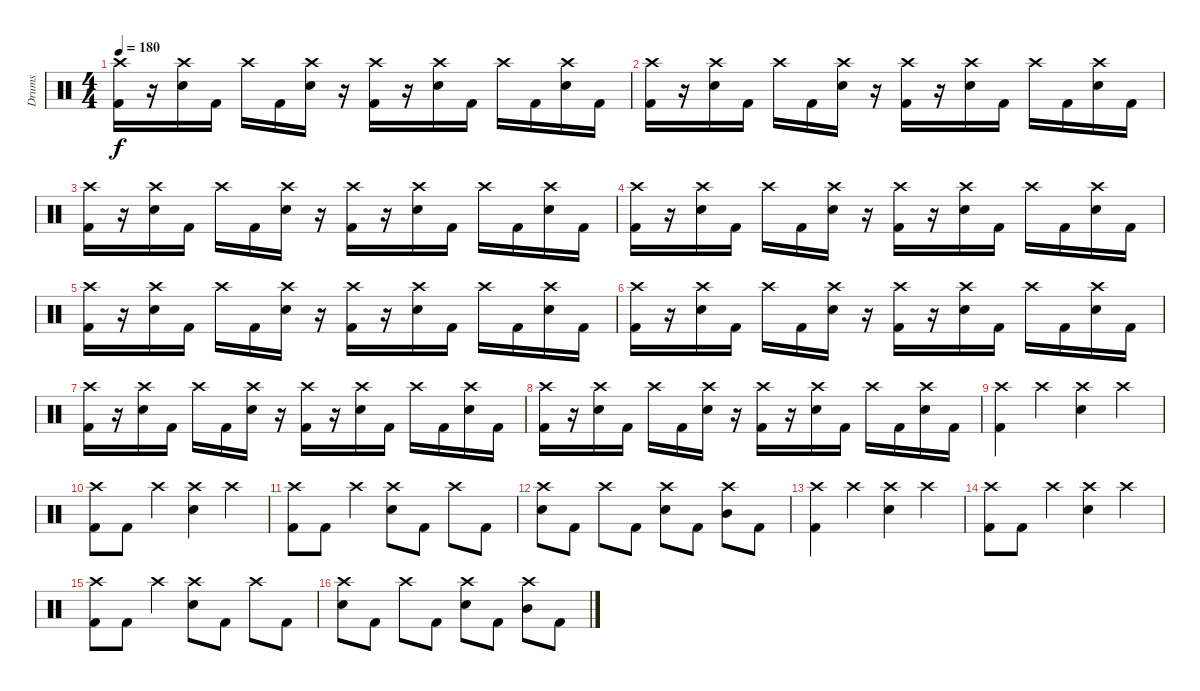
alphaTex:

\track ("Drums" "Drums") {instrument percussion}
\staff {score}
\articulation defaults
\ts (4 4)
\tempo 180
\clef neutral
\ks c
("Crash high (hit)" "Kick (hit) 2").16{dy f} r.16 ("Crash high (hit)" "Electric Snare (hit)").16 "Kick (hit) 2".16 "Crash high (hit)".16 "Kick (hit) 2".16 ("Crash high (hit)" "Electric Snare (hit)").16 r.16 ("Crash high (hit)" "Kick (hit) 2").16 r.16 ("Crash high (hit)" "Electric Snare (hit)").16 "Kick (hit) 2".16 "Crash high (hit)".16 "Kick (hit) 2".16 ("Crash high (hit)" "Electric Snare (hit)").16 "Kick (hit) 2".16 |
("Crash high (hit)" "Kick (hit) 2").16 r.16 ("Crash high (hit)" "Electric Snare (hit)").16 "Kick (hit) 2".16 "Crash high (hit)".16 "Kick (hit) 2".16 ("Crash high (hit)" "Electric Snare (hit)").16 r.16 ("Crash high (hit)" "Kick (hit) 2").16 r.16 ("Crash high (hit)" "Electric Snare (hit)").16 "Kick (hit) 2".16 "Crash high (hit)".16 "Kick (hit) 2".16 ("Crash high (hit)" "Electric Snare (hit)").16 "Kick (hit) 2".16 |
("Crash high (hit)" "Kick (hit) 2").16 r.16 ("Crash high (hit)" "Electric Snare (hit)").16 "Kick (hit) 2".16 "Crash high (hit)".16 "Kick (hit) 2".16 ("Crash high (hit)" "Electric Snare (hit)").16 r.16 ("Crash high (hit)" "Kick (hit) 2").16 r.16 ("Crash high (hit)" "Electric Snare (hit)").16 "Kick (hit) 2".16 "Crash high (hit)".16 "Kick (hit) 2".16 ("Crash high (hit)" "Electric Snare (hit)").16 "Kick (hit) 2".16 |
("Crash high (hit)" "Kick (hit) 2").16 r.16 ("Crash high (hit)" "Electric Snare (hit)").16 "Kick (hit) 2".16 "Crash high (hit)".16 "Kick (hit) 2".16 ("Crash high (hit)" "Electric Snare (hit)").16 r.16 ("Crash high (hit)" "Kick (hit) 2").16 r.16 ("Crash high (hit)" "Electric Snare (hit)").16 "Kick (hit) 2".16 "Crash high (hit)".16 "Kick (hit) 2".16 ("Crash high (hit)" "Electric Snare (hit)").16 "Kick (hit) 2".16 |
("Crash high (hit)" "Kick (hit) 2").16 r.16 ("Crash high (hit)" "Electric Snare (hit)").16 "Kick (hit) 2".16 "Crash high (hit)".16 "Kick (hit) 2".16 ("Crash high (hit)" "Electric Snare (hit)").16 r.16 ("Crash high (hit)" "Kick (hit) 2").16 r.16 ("Crash high (hit)" "Electric Snare (hit)").16 "Kick (hit) 2".16 "Crash high (hit)".16 "Kick (hit) 2".16 ("Crash high (hit)" "Electric Snare (hit)").16 "Kick (hit) 2".16 |
("Crash high (hit)" "Kick (hit) 2").16 r.16 ("Crash high (hit)" "Electric Snare (hit)").16 "Kick (hit) 2".16 "Crash high (hit)".16 "Kick (hit) 2".16 ("Crash high (hit)" "Electric Snare (hit)").16 r.16 ("Crash high (hit)" "Kick (hit) 2").16 r.16 ("Crash high (hit)" "Electric Snare (hit)").16 "Kick (hit) 2".16 "Crash high (hit)".16 "Kick (hit) 2".16 ("Crash high (hit)" "Electric Snare (hit)").16 "Kick (hit) 2".16 |
("Crash high (hit)" "Kick (hit) 2").16 r.16 ("Crash high (hit)" "Electric Snare (hit)").16 "Kick (hit) 2".16 "Crash high (hit)".16 "Kick (hit) 2".16 ("Crash high (hit)" "Electric Snare (hit)").16 r.16 ("Crash high (hit)" "Kick (hit) 2").16 r.16 ("Crash high (hit)" "Electric Snare (hit)").16 "Kick (hit) 2".16 "Crash high (hit)".16 "Kick (hit) 2".16 ("Crash high (hit)" "Electric Snare (hit)").16 "Kick (hit) 2".16 |
("Crash high (hit)" "Kick (hit) 2").16 r.16 ("Crash high (hit)" "Electric Snare (hit)").16 "Kick (hit) 2".16 "Crash high (hit)".16 "Kick (hit) 2".16 ("Crash high (hit)" "Electric Snare (hit)").16 r.16 ("Crash high (hit)" "Kick (hit) 2").16 r.16 ("Crash high (hit)" "Electric Snare (hit)").16 "Kick (hit) 2".16 "Crash high (hit)".16 "Kick (hit) 2".16 ("Crash high (hit)" "Electric Snare (hit)").16 "Kick (hit) 2".16 |
("Crash high (hit)" "Kick (hit) 2").4 "Crash high (hit)".4 ("Crash high (hit)" "Electric Snare (hit)").4 "Crash high (hit)".4 |
("Crash high (hit)" "Kick (hit) 2").8 "Kick (hit) 2".8 "Crash high (hit)".4 ("Crash high (hit)" "Electric Snare (hit)").4 "Crash high (hit)".4 |
("Crash high (hit)" "Kick (hit) 2").8 "Kick (hit) 2".8 "Crash high (hit)".4 ("Crash high (hit)" "Electric Snare (hit)").8 "Kick (hit) 2".8 "Crash high (hit)".8 "Kick (hit) 2".8 |
("Crash high (hit)" "Electric Snare (hit)").8 "Kick (hit) 2".8 "Crash high (hit)".8 "Kick (hit) 2".8 ("Crash high (hit)" "Electric Snare (hit)").8 "Kick (hit) 2".8 ("Crash high (hit)" "Mid Tom (hit)").8 "Kick (hit) 2".8 |
("Crash high (hit)" "Kick (hit) 2").4 "Crash high (hit)".4 ("Crash high (hit)" "Electric Snare (hit)").4 "Crash high (hit)".4 |
("Crash high (hit)" "Kick (hit) 2").8 "Kick (hit) 2".8 "Crash high (hit)".4 ("Crash high (hit)" "Electric Snare (hit)").4 "Crash high (hit)".4 |
("Crash high (hit)" "Kick (hit) 2").8 "Kick (hit) 2".8 "Crash high (hit)".4 ("Crash high (hit)" "Electric Snare (hit)").8 "Kick (hit) 2".8 "Crash high (hit)".8 "Kick (hit) 2".8 |
("Crash high (hit)" "Electric Snare (hit)").8 "Kick (hit) 2".8 "Crash high (hit)".8 "Kick (hit) 2".8 ("Crash high (hit)" "Electric Snare (hit)").8 "Kick (hit) 2".8 ("Crash high (hit)" "Mid Tom (hit)").8 "Kick (hit) 2".8
